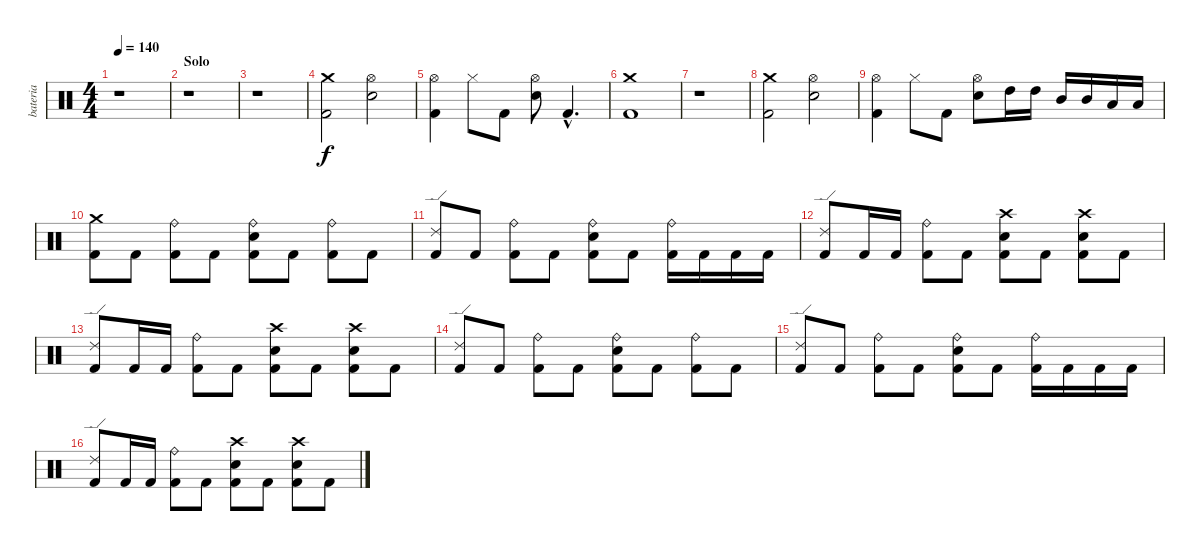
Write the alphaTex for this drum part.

\track ("bateria" "bateria") {instrument percussion}
\staff {score}
\articulation defaults
\ts (4 4)
\tempo 140
\clef neutral
\ks c
r.1{dy f} |
\section ("" "Solo")
r.1 |
r.1 |
("Crash medium (hit)" "Kick (hit) 2").2 ("Hi-Hat (open)" "Electric Snare (hit)").2 |
("Hi-Hat (open)" "Kick (hit) 2").4 "Hi-Hat (closed)".8 "Kick (hit) 2".8 ("Hi-Hat (open)" "Electric Snare (hit)").8 "Kick (hit) 2"{hac}.4{d} |
("Crash medium (hit)" "Kick (hit) 2").1 |
r.1 |
("Crash medium (hit)" "Kick (hit) 2").2 ("Hi-Hat (open)" "Electric Snare (hit)").2 |
("Hi-Hat (open)" "Kick (hit) 2").4 "Hi-Hat (closed)".8 "Kick (hit) 2".8 ("Hi-Hat (open)" "Electric Snare (hit)").8 "High Tom (hit)".16 "High Tom (hit)".16 "Mid Tom (hit)".16 "Mid Tom (hit)".16 "Low Tom (hit)".16 "Low Tom (hit)".16 |
("Crash medium (hit)" "Kick (hit) 2").8 "Kick (hit) 2".8 ("Ride (bell)" "Kick (hit) 2").8 "Kick (hit) 2".8 ("Ride (bell)" "Electric Snare (hit)" "Kick (hit) 2").8 "Kick (hit) 2".8 ("Ride (bell)" "Kick (hit) 2").8 "Kick (hit) 2".8 |
("Ride (edge) 2" "Kick (hit) 2").8 "Kick (hit) 2".8 ("Ride (bell)" "Kick (hit) 2").8 "Kick (hit) 2".8 ("Ride (bell)" "Electric Snare (hit)" "Kick (hit) 2").8 "Kick (hit) 2".8 ("Ride (bell)" "Kick (hit) 2").16 "Kick (hit) 2".16 "Kick (hit) 2".16 "Kick (hit) 2".16 |
("Ride (edge) 2" "Kick (hit) 2").8 "Kick (hit) 2".16 "Kick (hit) 2".16 ("Ride (bell)" "Kick (hit) 2").8 "Kick (hit) 2".8 ("Crash high (hit)" "Electric Snare (hit)" "Kick (hit) 2").8 "Kick (hit) 2".8 ("Crash high (hit)" "Electric Snare (hit)" "Kick (hit) 2").8 "Kick (hit) 2".8 |
("Ride (edge) 2" "Kick (hit) 2").8 "Kick (hit) 2".16 "Kick (hit) 2".16 ("Ride (bell)" "Kick (hit) 2").8 "Kick (hit) 2".8 ("Crash high (hit)" "Electric Snare (hit)" "Kick (hit) 2").8 "Kick (hit) 2".8 ("Crash high (hit)" "Electric Snare (hit)" "Kick (hit) 2").8 "Kick (hit) 2".8 |
("Ride (edge) 2" "Kick (hit) 2").8 "Kick (hit) 2".8 ("Ride (bell)" "Kick (hit) 2").8 "Kick (hit) 2".8 ("Ride (bell)" "Electric Snare (hit)" "Kick (hit) 2").8 "Kick (hit) 2".8 ("Ride (bell)" "Kick (hit) 2").8 "Kick (hit) 2".8 |
("Ride (edge) 2" "Kick (hit) 2").8 "Kick (hit) 2".8 ("Ride (bell)" "Kick (hit) 2").8 "Kick (hit) 2".8 ("Ride (bell)" "Electric Snare (hit)" "Kick (hit) 2").8 "Kick (hit) 2".8 ("Ride (bell)" "Kick (hit) 2").16 "Kick (hit) 2".16 "Kick (hit) 2".16 "Kick (hit) 2".16 |
("Ride (edge) 2" "Kick (hit) 2").8 "Kick (hit) 2".16 "Kick (hit) 2".16 ("Ride (bell)" "Kick (hit) 2").8 "Kick (hit) 2".8 ("Crash high (hit)" "Electric Snare (hit)" "Kick (hit) 2").8 "Kick (hit) 2".8 ("Crash high (hit)" "Electric Snare (hit)" "Kick (hit) 2").8 "Kick (hit) 2".8
